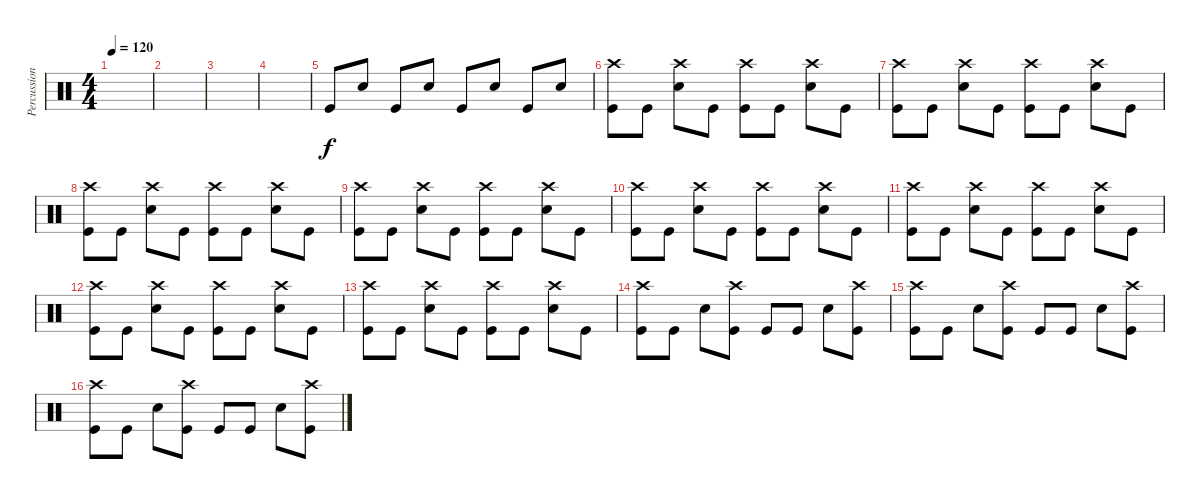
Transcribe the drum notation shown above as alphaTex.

\track ("Percussion" "Percussion") {instrument percussion}
\staff {score}
\articulation defaults
\ts (4 4)
\tempo 120
\clef neutral
\ks c
|
|
|
|
"Kick (hit)".8 "Snare (hit) 2".8 "Kick (hit)".8 "Snare (hit) 2".8 "Kick (hit)".8 "Snare (hit) 2".8 "Kick (hit)".8 "Snare (hit) 2".8 |
("Crash high (hit)" "Kick (hit)").8 "Kick (hit)".8 ("Crash high (hit)" "Snare (hit) 2").8 "Kick (hit)".8 ("Crash high (hit)" "Kick (hit)").8 "Kick (hit)".8 ("Crash high (hit)" "Snare (hit) 2").8 "Kick (hit)".8 |
("Crash high (hit)" "Kick (hit)").8 "Kick (hit)".8 ("Crash high (hit)" "Snare (hit) 2").8 "Kick (hit)".8 ("Crash high (hit)" "Kick (hit)").8 "Kick (hit)".8 ("Crash high (hit)" "Snare (hit) 2").8 "Kick (hit)".8 |
("Crash high (hit)" "Kick (hit)").8 "Kick (hit)".8 ("Crash high (hit)" "Snare (hit) 2").8 "Kick (hit)".8 ("Crash high (hit)" "Kick (hit)").8 "Kick (hit)".8 ("Crash high (hit)" "Snare (hit) 2").8 "Kick (hit)".8 |
("Crash high (hit)" "Kick (hit)").8 "Kick (hit)".8 ("Crash high (hit)" "Snare (hit) 2").8 "Kick (hit)".8 ("Crash high (hit)" "Kick (hit)").8 "Kick (hit)".8 ("Crash high (hit)" "Snare (hit) 2").8 "Kick (hit)".8 |
("Crash high (hit)" "Kick (hit)").8 "Kick (hit)".8 ("Crash high (hit)" "Snare (hit) 2").8 "Kick (hit)".8 ("Crash high (hit)" "Kick (hit)").8 "Kick (hit)".8 ("Crash high (hit)" "Snare (hit) 2").8 "Kick (hit)".8 |
("Crash high (hit)" "Kick (hit)").8 "Kick (hit)".8 ("Crash high (hit)" "Snare (hit) 2").8 "Kick (hit)".8 ("Crash high (hit)" "Kick (hit)").8 "Kick (hit)".8 ("Crash high (hit)" "Snare (hit) 2").8 "Kick (hit)".8 |
("Crash high (hit)" "Kick (hit)").8 "Kick (hit)".8 ("Crash high (hit)" "Snare (hit) 2").8 "Kick (hit)".8 ("Crash high (hit)" "Kick (hit)").8 "Kick (hit)".8 ("Crash high (hit)" "Snare (hit) 2").8 "Kick (hit)".8 |
("Crash high (hit)" "Kick (hit)").8 "Kick (hit)".8 ("Crash high (hit)" "Snare (hit) 2").8 "Kick (hit)".8 ("Crash high (hit)" "Kick (hit)").8 "Kick (hit)".8 ("Crash high (hit)" "Snare (hit) 2").8 "Kick (hit)".8 |
("Crash high (hit)" "Kick (hit)").8 "Kick (hit)".8 "Snare (hit) 2".8 ("Crash high (hit)" "Kick (hit)").8 "Kick (hit)".8 "Kick (hit)".8 "Snare (hit) 2".8 ("Crash high (hit)" "Kick (hit)").8 |
("Crash high (hit)" "Kick (hit)").8 "Kick (hit)".8 "Snare (hit) 2".8 ("Crash high (hit)" "Kick (hit)").8 "Kick (hit)".8 "Kick (hit)".8 "Snare (hit) 2".8 ("Crash high (hit)" "Kick (hit)").8 |
("Crash high (hit)" "Kick (hit)").8 "Kick (hit)".8 "Snare (hit) 2".8 ("Crash high (hit)" "Kick (hit)").8 "Kick (hit)".8 "Kick (hit)".8 "Snare (hit) 2".8 ("Crash high (hit)" "Kick (hit)").8
